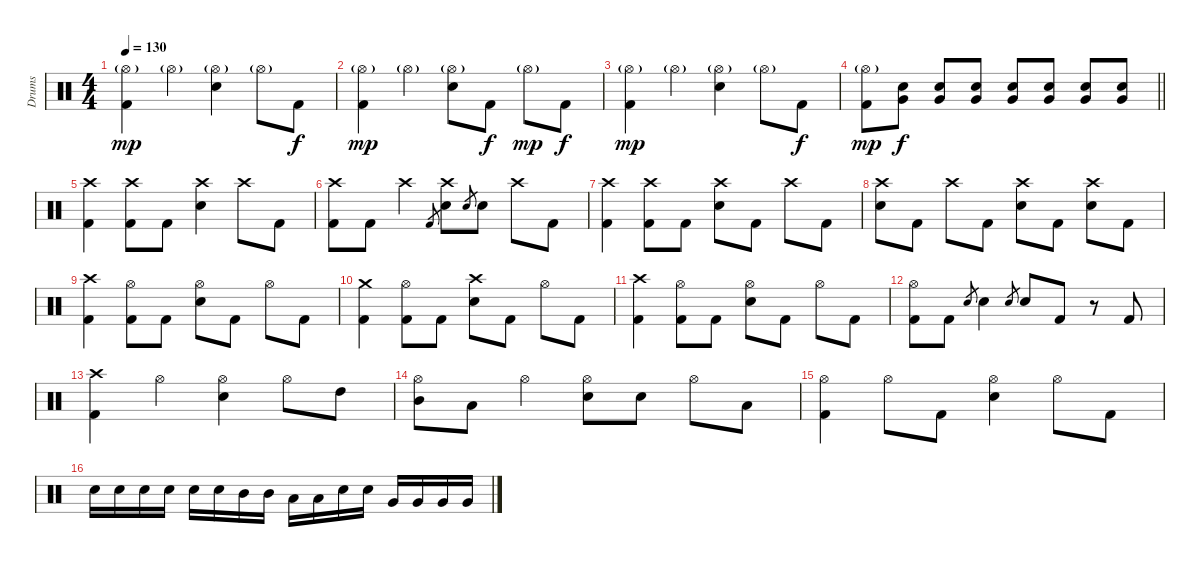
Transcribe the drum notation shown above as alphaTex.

\track ("Drums" "Drums") {instrument percussion}
\staff {score}
\articulation defaults
\ts (4 4)
\tempo 130
\clef neutral
\ks c
("Hi-Hat (open)"{g} "Kick (hit) 2").4{dy mp} "Hi-Hat (open)"{g}.4 ("Hi-Hat (open)"{g} "Electric Snare (hit)").4 "Hi-Hat (open)"{g}.8 "Kick (hit) 2".8{dy f} |
("Hi-Hat (open)"{g} "Kick (hit) 2").4{dy mp} "Hi-Hat (open)"{g}.4 ("Hi-Hat (open)"{g} "Electric Snare (hit)").8 "Kick (hit) 2".8{dy f} "Hi-Hat (open)"{g}.8{dy mp} "Kick (hit) 2".8{dy f} |
("Hi-Hat (open)"{g} "Kick (hit) 2").4{dy mp} "Hi-Hat (open)"{g}.4 ("Hi-Hat (open)"{g} "Electric Snare (hit)").4 "Hi-Hat (open)"{g}.8 "Kick (hit) 2".8{dy f} |
\barLineRight lightlight
("Hi-Hat (open)"{g} "Kick (hit) 2").8{dy mp} ("Electric Snare (hit)" "Very Low Tom (hit)").8{dy f} ("Electric Snare (hit)" "Very Low Tom (hit)").8 ("Electric Snare (hit)" "Very Low Tom (hit)").8 ("Electric Snare (hit)" "Very Low Tom (hit)").8 ("Electric Snare (hit)" "Very Low Tom (hit)").8 ("Electric Snare (hit)" "Very Low Tom (hit)").8 ("Electric Snare (hit)" "Very Low Tom (hit)").8 |
("Crash high (hit)" "Kick (hit) 2").4 ("Crash high (hit)" "Kick (hit) 2").8 "Kick (hit) 2".8 ("Crash high (hit)" "Electric Snare (hit)").4 "Crash high (hit)".8 "Kick (hit) 2".8 |
("Crash high (hit)" "Kick (hit) 2").8 "Kick (hit) 2".8 "Crash high (hit)".4 "Kick (hit) 2".8{gr} ("Crash high (hit)" "Electric Snare (hit)").8 "Electric Snare (hit)".8{gr} "Electric Snare (hit)".8 "Crash high (hit)".8 "Kick (hit) 2".8 |
("Crash high (hit)" "Kick (hit) 2").4 ("Crash high (hit)" "Kick (hit) 2").8 "Kick (hit) 2".8 ("Crash high (hit)" "Electric Snare (hit)").8 "Kick (hit) 2".8 "Crash high (hit)".8 "Kick (hit) 2".8 |
("Crash high (hit)" "Electric Snare (hit)").8 "Kick (hit) 2".8 "Crash high (hit)".8 "Kick (hit) 2".8 ("Crash high (hit)" "Electric Snare (hit)").8 "Kick (hit) 2".8 ("Crash high (hit)" "Electric Snare (hit)").8 "Kick (hit) 2".8 |
("Crash high (hit)" "Kick (hit) 2").4 ("Hi-Hat (open)" "Kick (hit) 2").8 "Kick (hit) 2".8 ("Hi-Hat (open)" "Electric Snare (hit)").8 "Kick (hit) 2".8 "Hi-Hat (open)".8 "Kick (hit) 2".8 |
("Crash medium (hit)" "Kick (hit) 2").4 ("Hi-Hat (open)" "Kick (hit) 2").8 "Kick (hit) 2".8 ("Crash high (hit)" "Electric Snare (hit)").8 "Kick (hit) 2".8 "Hi-Hat (open)".8 "Kick (hit) 2".8 |
("Crash high (hit)" "Kick (hit) 2").4 ("Hi-Hat (open)" "Kick (hit) 2").8 "Kick (hit) 2".8 ("Hi-Hat (open)" "Electric Snare (hit)").8 "Kick (hit) 2".8 "Hi-Hat (open)".8 "Kick (hit) 2".8 |
("Hi-Hat (open)" "Kick (hit) 2").8 "Kick (hit) 2".8 "Electric Snare (hit)".8{gr} "Electric Snare (hit)".4 "Electric Snare (hit)".8{gr} "Electric Snare (hit)".8 "Kick (hit) 2".8 r.8 "Kick (hit) 2".8 |
("Crash high (hit)" "Kick (hit) 2").4 "Hi-Hat (open)".4 ("Hi-Hat (open)" "Electric Snare (hit)").4 "Hi-Hat (open)".8 "High Tom (hit)".8 |
("Hi-Hat (open)" "Mid Tom (hit)").8 "Low Tom (hit)".8 "Hi-Hat (open)".4 ("Hi-Hat (open)" "Electric Snare (hit)").8 "Electric Snare (hit)".8 "Hi-Hat (open)".8 "Low Tom (hit)".8 |
("Hi-Hat (open)" "Kick (hit) 2").4 "Hi-Hat (open)".8 "Kick (hit) 2".8 ("Hi-Hat (open)" "Electric Snare (hit)").4 "Hi-Hat (open)".8 "Kick (hit) 2".8 |
"Electric Snare (hit)".16 "Electric Snare (hit)".16 "Electric Snare (hit)".16 "Electric Snare (hit)".16 "Electric Snare (hit)".16 "Electric Snare (hit)".16 "Mid Tom (hit)".16 "Mid Tom (hit)".16 "Low Tom (hit)".16 "Low Tom (hit)".16 "Electric Snare (hit)".16 "Electric Snare (hit)".16 "Very Low Tom (hit)".16 "Very Low Tom (hit)".16 "Very Low Tom (hit)".16 "Very Low Tom (hit)".16
